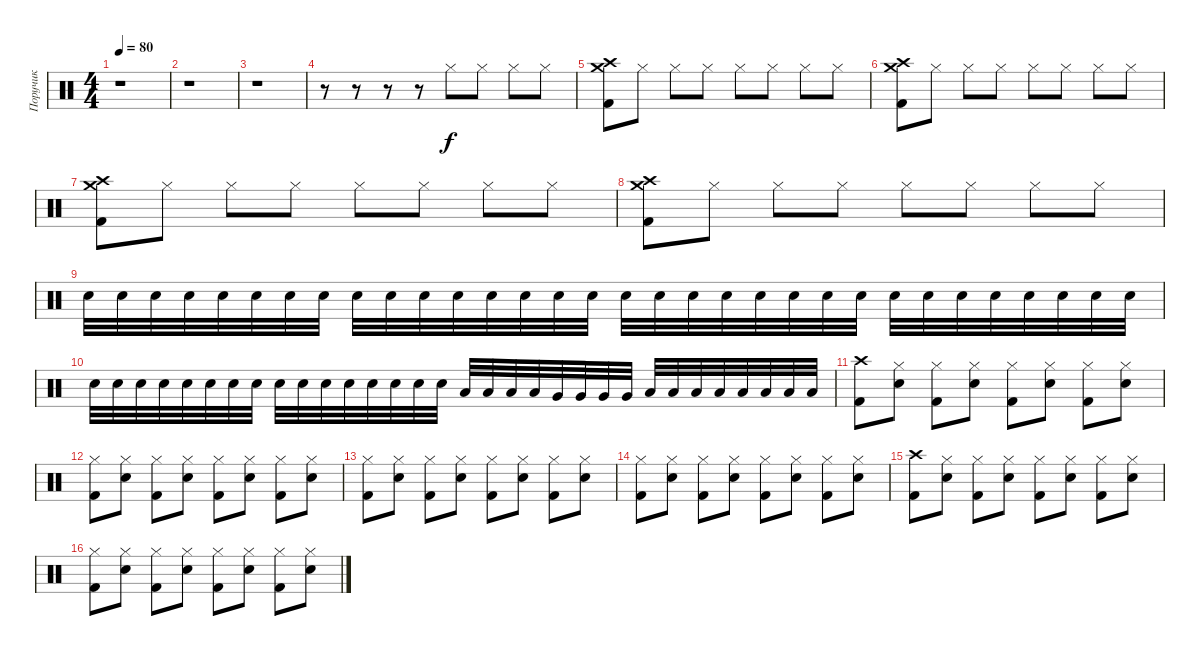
\track ("Поручик" "Поручик") {instrument percussion}
\staff {score}
\articulation defaults
\ts (4 4)
\tempo 80
\clef neutral
\ks c
r.1{dy f} |
r.1 |
r.1 |
r.8 r.8 r.8 r.8 "Hi-Hat (closed)".8 "Hi-Hat (closed)".8 "Hi-Hat (closed)".8 "Hi-Hat (closed)".8 |
("Crash high (hit)" "Crash medium (hit)" "Kick (hit) 2").8 "Hi-Hat (closed)".8 "Hi-Hat (closed)".8 "Hi-Hat (closed)".8 "Hi-Hat (closed)".8 "Hi-Hat (closed)".8 "Hi-Hat (closed)".8 "Hi-Hat (closed)".8 |
("Crash high (hit)" "Crash medium (hit)" "Kick (hit) 2").8 "Hi-Hat (closed)".8 "Hi-Hat (closed)".8 "Hi-Hat (closed)".8 "Hi-Hat (closed)".8 "Hi-Hat (closed)".8 "Hi-Hat (closed)".8 "Hi-Hat (closed)".8 |
("Crash high (hit)" "Crash medium (hit)" "Kick (hit) 2").8 "Hi-Hat (closed)".8 "Hi-Hat (closed)".8 "Hi-Hat (closed)".8 "Hi-Hat (closed)".8 "Hi-Hat (closed)".8 "Hi-Hat (closed)".8 "Hi-Hat (closed)".8 |
("Crash high (hit)" "Crash medium (hit)" "Kick (hit) 2").8 "Hi-Hat (closed)".8 "Hi-Hat (closed)".8 "Hi-Hat (closed)".8 "Hi-Hat (closed)".8 "Hi-Hat (closed)".8 "Hi-Hat (closed)".8 "Hi-Hat (closed)".8 |
"Electric Snare (hit)".32 "Electric Snare (hit)".32 "Electric Snare (hit)".32 "Electric Snare (hit)".32 "Electric Snare (hit)".32 "Electric Snare (hit)".32 "Electric Snare (hit)".32 "Electric Snare (hit)".32 "Electric Snare (hit)".32 "Electric Snare (hit)".32 "Electric Snare (hit)".32 "Electric Snare (hit)".32 "Electric Snare (hit)".32 "Electric Snare (hit)".32 "Electric Snare (hit)".32 "Electric Snare (hit)".32 "Electric Snare (hit)".32 "Electric Snare (hit)".32 "Electric Snare (hit)".32 "Electric Snare (hit)".32 "Electric Snare (hit)".32 "Electric Snare (hit)".32 "Electric Snare (hit)".32 "Electric Snare (hit)".32 "Electric Snare (hit)".32 "Electric Snare (hit)".32 "Electric Snare (hit)".32 "Electric Snare (hit)".32 "Electric Snare (hit)".32 "Electric Snare (hit)".32 "Electric Snare (hit)".32 "Electric Snare (hit)".32 |
"Electric Snare (hit)".32 "Electric Snare (hit)".32 "Electric Snare (hit)".32 "Electric Snare (hit)".32 "Electric Snare (hit)".32 "Electric Snare (hit)".32 "Electric Snare (hit)".32 "Electric Snare (hit)".32 "Electric Snare (hit)".32 "Electric Snare (hit)".32 "Electric Snare (hit)".32 "Electric Snare (hit)".32 "Electric Snare (hit)".32 "Electric Snare (hit)".32 "Electric Snare (hit)".32 "Electric Snare (hit)".32 "Low Floor Tom (hit)".32 "Low Floor Tom (hit)".32 "Low Floor Tom (hit)".32 "Low Floor Tom (hit)".32 "Very Low Tom (hit)".32 "Very Low Tom (hit)".32 "Very Low Tom (hit)".32 "Very Low Tom (hit)".32 "Low Tom (hit)".32 "Low Tom (hit)".32 "Low Tom (hit)".32 "Low Tom (hit)".32 "Low Floor Tom (hit)".32 "Low Floor Tom (hit)".32 "Low Floor Tom (hit)".32 "Low Floor Tom (hit)".32 |
("Crash high (hit)" "Kick (hit) 2").8 ("Hi-Hat (closed)" "Electric Snare (hit)").8 ("Hi-Hat (closed)" "Kick (hit) 2").8 ("Hi-Hat (closed)" "Electric Snare (hit)").8 ("Hi-Hat (closed)" "Kick (hit) 2").8 ("Hi-Hat (closed)" "Electric Snare (hit)").8 ("Hi-Hat (closed)" "Kick (hit) 2").8 ("Hi-Hat (closed)" "Electric Snare (hit)").8 |
("Hi-Hat (closed)" "Kick (hit) 2").8 ("Hi-Hat (closed)" "Electric Snare (hit)").8 ("Hi-Hat (closed)" "Kick (hit) 2").8 ("Hi-Hat (closed)" "Electric Snare (hit)").8 ("Hi-Hat (closed)" "Kick (hit) 2").8 ("Hi-Hat (closed)" "Electric Snare (hit)").8 ("Hi-Hat (closed)" "Kick (hit) 2").8 ("Hi-Hat (closed)" "Electric Snare (hit)").8 |
("Hi-Hat (closed)" "Kick (hit) 2").8 ("Hi-Hat (closed)" "Electric Snare (hit)").8 ("Hi-Hat (closed)" "Kick (hit) 2").8 ("Hi-Hat (closed)" "Electric Snare (hit)").8 ("Hi-Hat (closed)" "Kick (hit) 2").8 ("Hi-Hat (closed)" "Electric Snare (hit)").8 ("Hi-Hat (closed)" "Kick (hit) 2").8 ("Hi-Hat (closed)" "Electric Snare (hit)").8 |
("Hi-Hat (closed)" "Kick (hit) 2").8 ("Hi-Hat (closed)" "Electric Snare (hit)").8 ("Hi-Hat (closed)" "Kick (hit) 2").8 ("Hi-Hat (closed)" "Electric Snare (hit)").8 ("Hi-Hat (closed)" "Kick (hit) 2").8 ("Hi-Hat (closed)" "Electric Snare (hit)").8 ("Hi-Hat (closed)" "Kick (hit) 2").8 ("Hi-Hat (closed)" "Electric Snare (hit)").8 |
("Crash high (hit)" "Kick (hit) 2").8 ("Hi-Hat (closed)" "Electric Snare (hit)").8 ("Hi-Hat (closed)" "Kick (hit) 2").8 ("Hi-Hat (closed)" "Electric Snare (hit)").8 ("Hi-Hat (closed)" "Kick (hit) 2").8 ("Hi-Hat (closed)" "Electric Snare (hit)").8 ("Hi-Hat (closed)" "Kick (hit) 2").8 ("Hi-Hat (closed)" "Electric Snare (hit)").8 |
("Hi-Hat (closed)" "Kick (hit) 2").8 ("Hi-Hat (closed)" "Electric Snare (hit)").8 ("Hi-Hat (closed)" "Kick (hit) 2").8 ("Hi-Hat (closed)" "Electric Snare (hit)").8 ("Hi-Hat (closed)" "Kick (hit) 2").8 ("Hi-Hat (closed)" "Electric Snare (hit)").8 ("Hi-Hat (closed)" "Kick (hit) 2").8 ("Hi-Hat (closed)" "Electric Snare (hit)").8
